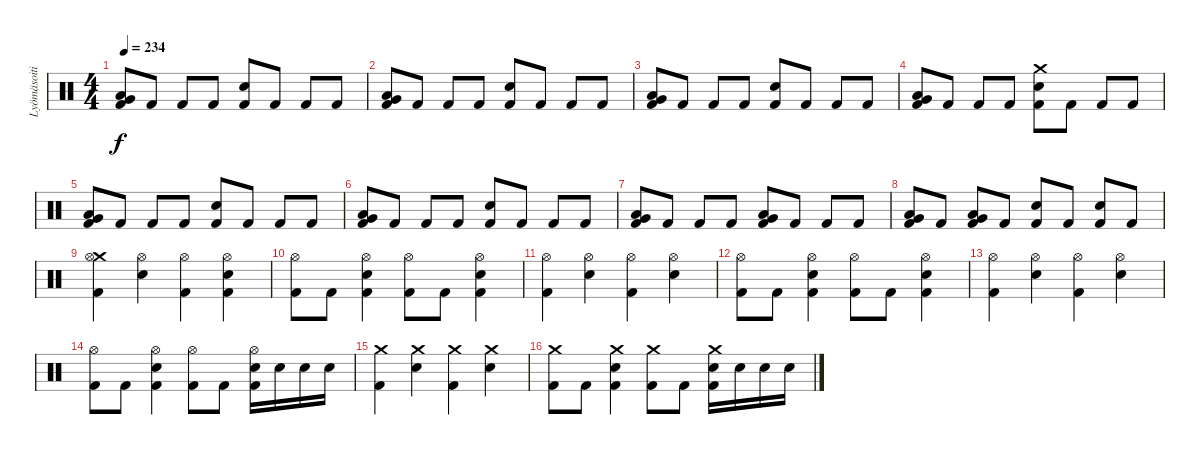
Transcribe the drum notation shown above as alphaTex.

\track ("Lyömäsoitin" "Lyömäsoiti") {instrument percussion}
\staff {score}
\articulation defaults
\ts (4 4)
\tempo 234
\clef neutral
\ks c
("Very Low Tom (hit)" "Low Floor Tom (hit)" "Kick (hit) 2").8{dy f} "Kick (hit) 2".8 "Kick (hit) 2".8 "Kick (hit) 2".8 ("Electric Snare (hit)" "Kick (hit) 2").8 "Kick (hit) 2".8 "Kick (hit) 2".8 "Kick (hit) 2".8 |
("Very Low Tom (hit)" "Low Floor Tom (hit)" "Kick (hit) 2").8 "Kick (hit) 2".8 "Kick (hit) 2".8 "Kick (hit) 2".8 ("Electric Snare (hit)" "Kick (hit) 2").8 "Kick (hit) 2".8 "Kick (hit) 2".8 "Kick (hit) 2".8 |
("Very Low Tom (hit)" "Low Floor Tom (hit)" "Kick (hit) 2").8 "Kick (hit) 2".8 "Kick (hit) 2".8 "Kick (hit) 2".8 ("Electric Snare (hit)" "Kick (hit) 2").8 "Kick (hit) 2".8 "Kick (hit) 2".8 "Kick (hit) 2".8 |
("Very Low Tom (hit)" "Low Floor Tom (hit)" "Kick (hit) 2").8 "Kick (hit) 2".8 "Kick (hit) 2".8 "Kick (hit) 2".8 ("Crash medium (hit)" "Electric Snare (hit)" "Kick (hit) 2").8 "Kick (hit) 2".8 "Kick (hit) 2".8 "Kick (hit) 2".8 |
("Very Low Tom (hit)" "Low Floor Tom (hit)" "Kick (hit) 2").8 "Kick (hit) 2".8 "Kick (hit) 2".8 "Kick (hit) 2".8 ("Electric Snare (hit)" "Kick (hit) 2").8 "Kick (hit) 2".8 "Kick (hit) 2".8 "Kick (hit) 2".8 |
("Very Low Tom (hit)" "Low Floor Tom (hit)" "Kick (hit) 2").8 "Kick (hit) 2".8 "Kick (hit) 2".8 "Kick (hit) 2".8 ("Electric Snare (hit)" "Kick (hit) 2").8 "Kick (hit) 2".8 "Kick (hit) 2".8 "Kick (hit) 2".8 |
("Very Low Tom (hit)" "Low Floor Tom (hit)" "Kick (hit) 2").8 "Kick (hit) 2".8 "Kick (hit) 2".8 "Kick (hit) 2".8 ("Very Low Tom (hit)" "Low Floor Tom (hit)" "Kick (hit) 2").8 "Kick (hit) 2".8 "Kick (hit) 2".8 "Kick (hit) 2".8 |
("Very Low Tom (hit)" "Low Floor Tom (hit)" "Kick (hit) 2").8 "Kick (hit) 2".8 ("Very Low Tom (hit)" "Low Floor Tom (hit)" "Kick (hit) 2").8 "Kick (hit) 2".8 ("Electric Snare (hit)" "Kick (hit) 2").8 "Kick (hit) 2".8 ("Electric Snare (hit)" "Kick (hit) 2").8 "Kick (hit) 2".8 |
("Crash medium (hit)" "Hi-Hat (open)" "Kick (hit) 2").4 ("Hi-Hat (open)" "Electric Snare (hit)").4 ("Hi-Hat (open)" "Kick (hit) 2").4 ("Hi-Hat (open)" "Electric Snare (hit)" "Kick (hit) 2").4 |
("Hi-Hat (open)" "Kick (hit) 2").8 "Kick (hit) 2".8 ("Hi-Hat (open)" "Electric Snare (hit)" "Kick (hit) 2").4 ("Hi-Hat (open)" "Kick (hit) 2").8 "Kick (hit) 2".8 ("Hi-Hat (open)" "Electric Snare (hit)" "Kick (hit) 2").4 |
("Hi-Hat (open)" "Kick (hit) 2").4 ("Hi-Hat (open)" "Electric Snare (hit)").4 ("Hi-Hat (open)" "Kick (hit) 2").4 ("Hi-Hat (open)" "Electric Snare (hit)").4 |
("Hi-Hat (open)" "Kick (hit) 2").8 "Kick (hit) 2".8 ("Hi-Hat (open)" "Electric Snare (hit)" "Kick (hit) 2").4 ("Hi-Hat (open)" "Kick (hit) 2").8 "Kick (hit) 2".8 ("Hi-Hat (open)" "Electric Snare (hit)" "Kick (hit) 2").4 |
("Hi-Hat (open)" "Kick (hit) 2").4 ("Hi-Hat (open)" "Electric Snare (hit)").4 ("Hi-Hat (open)" "Kick (hit) 2").4 ("Hi-Hat (open)" "Electric Snare (hit)").4 |
("Hi-Hat (open)" "Kick (hit) 2").8 "Kick (hit) 2".8 ("Hi-Hat (open)" "Electric Snare (hit)" "Kick (hit) 2").4 ("Hi-Hat (open)" "Kick (hit) 2").8 "Kick (hit) 2".8 ("Hi-Hat (open)" "Electric Snare (hit)" "Kick (hit) 2").16 "Electric Snare (hit)".16 "Electric Snare (hit)".16 "Electric Snare (hit)".16 |
("Crash medium (hit)" "Kick (hit) 2").4 ("Crash medium (hit)" "Electric Snare (hit)").4 ("Crash medium (hit)" "Kick (hit) 2").4 ("Crash medium (hit)" "Electric Snare (hit)").4 |
("Crash medium (hit)" "Kick (hit) 2").8 "Kick (hit) 2".8 ("Crash medium (hit)" "Electric Snare (hit)" "Kick (hit) 2").4 ("Crash medium (hit)" "Kick (hit) 2").8 "Kick (hit) 2".8 ("Crash medium (hit)" "Electric Snare (hit)" "Kick (hit) 2").16 "Electric Snare (hit)".16 "Electric Snare (hit)".16 "Electric Snare (hit)".16
